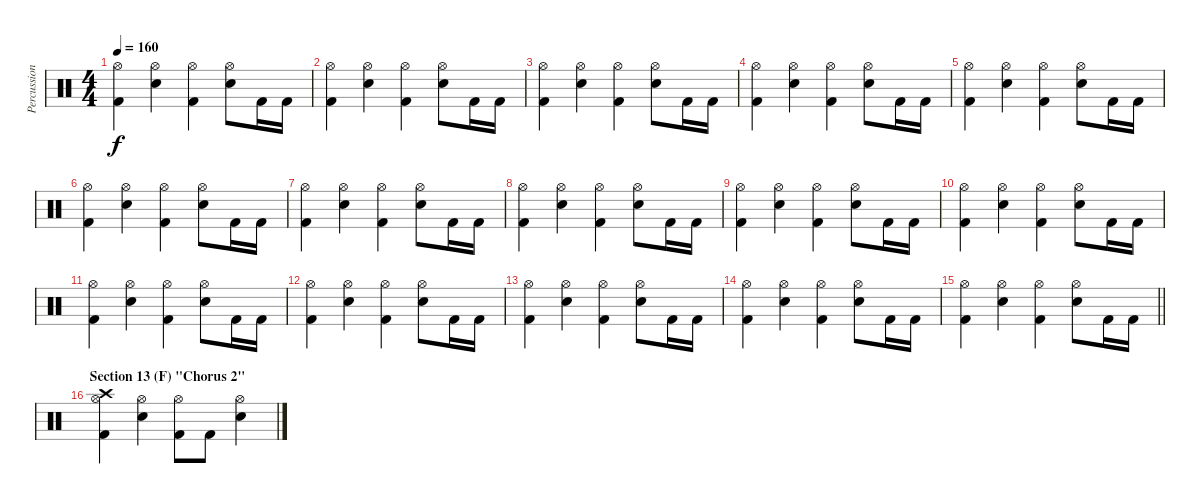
\track ("Percussion" "Percussion") {instrument percussion}
\staff {score}
\articulation defaults
\ts (4 4)
\tempo 160
\clef neutral
\ks c
("Hi-Hat (open)" "Kick (hit) 2").4{dy f} ("Hi-Hat (open)" "Snare (hit) 2").4 ("Hi-Hat (open)" "Kick (hit) 2").4 ("Hi-Hat (open)" "Snare (hit) 2").8 "Kick (hit) 2".16 "Kick (hit) 2".16 |
("Hi-Hat (open)" "Kick (hit) 2").4 ("Hi-Hat (open)" "Snare (hit) 2").4 ("Hi-Hat (open)" "Kick (hit) 2").4 ("Hi-Hat (open)" "Snare (hit) 2").8 "Kick (hit) 2".16 "Kick (hit) 2".16 |
("Hi-Hat (open)" "Kick (hit) 2").4 ("Hi-Hat (open)" "Snare (hit) 2").4 ("Hi-Hat (open)" "Kick (hit) 2").4 ("Hi-Hat (open)" "Snare (hit) 2").8 "Kick (hit) 2".16 "Kick (hit) 2".16 |
("Hi-Hat (open)" "Kick (hit) 2").4 ("Hi-Hat (open)" "Snare (hit) 2").4 ("Hi-Hat (open)" "Kick (hit) 2").4 ("Hi-Hat (open)" "Snare (hit) 2").8 "Kick (hit) 2".16 "Kick (hit) 2".16 |
("Hi-Hat (open)" "Kick (hit) 2").4 ("Hi-Hat (open)" "Snare (hit) 2").4 ("Hi-Hat (open)" "Kick (hit) 2").4 ("Hi-Hat (open)" "Snare (hit) 2").8 "Kick (hit) 2".16 "Kick (hit) 2".16 |
("Hi-Hat (open)" "Kick (hit) 2").4 ("Hi-Hat (open)" "Snare (hit) 2").4 ("Hi-Hat (open)" "Kick (hit) 2").4 ("Hi-Hat (open)" "Snare (hit) 2").8 "Kick (hit) 2".16 "Kick (hit) 2".16 |
("Hi-Hat (open)" "Kick (hit) 2").4 ("Hi-Hat (open)" "Snare (hit) 2").4 ("Hi-Hat (open)" "Kick (hit) 2").4 ("Hi-Hat (open)" "Snare (hit) 2").8 "Kick (hit) 2".16 "Kick (hit) 2".16 |
("Hi-Hat (open)" "Kick (hit) 2").4 ("Hi-Hat (open)" "Snare (hit) 2").4 ("Hi-Hat (open)" "Kick (hit) 2").4 ("Hi-Hat (open)" "Snare (hit) 2").8 "Kick (hit) 2".16 "Kick (hit) 2".16 |
("Hi-Hat (open)" "Kick (hit) 2").4 ("Hi-Hat (open)" "Snare (hit) 2").4 ("Hi-Hat (open)" "Kick (hit) 2").4 ("Hi-Hat (open)" "Snare (hit) 2").8 "Kick (hit) 2".16 "Kick (hit) 2".16 |
("Hi-Hat (open)" "Kick (hit) 2").4 ("Hi-Hat (open)" "Snare (hit) 2").4 ("Hi-Hat (open)" "Kick (hit) 2").4 ("Hi-Hat (open)" "Snare (hit) 2").8 "Kick (hit) 2".16 "Kick (hit) 2".16 |
("Hi-Hat (open)" "Kick (hit) 2").4 ("Hi-Hat (open)" "Snare (hit) 2").4 ("Hi-Hat (open)" "Kick (hit) 2").4 ("Hi-Hat (open)" "Snare (hit) 2").8 "Kick (hit) 2".16 "Kick (hit) 2".16 |
("Hi-Hat (open)" "Kick (hit) 2").4 ("Hi-Hat (open)" "Snare (hit) 2").4 ("Hi-Hat (open)" "Kick (hit) 2").4 ("Hi-Hat (open)" "Snare (hit) 2").8 "Kick (hit) 2".16 "Kick (hit) 2".16 |
("Hi-Hat (open)" "Kick (hit) 2").4 ("Hi-Hat (open)" "Snare (hit) 2").4 ("Hi-Hat (open)" "Kick (hit) 2").4 ("Hi-Hat (open)" "Snare (hit) 2").8 "Kick (hit) 2".16 "Kick (hit) 2".16 |
("Hi-Hat (open)" "Kick (hit) 2").4 ("Hi-Hat (open)" "Snare (hit) 2").4 ("Hi-Hat (open)" "Kick (hit) 2").4 ("Hi-Hat (open)" "Snare (hit) 2").8 "Kick (hit) 2".16 "Kick (hit) 2".16 |
\barLineRight lightlight
("Hi-Hat (open)" "Kick (hit) 2").4 ("Hi-Hat (open)" "Snare (hit) 2").4 ("Hi-Hat (open)" "Kick (hit) 2").4 ("Hi-Hat (open)" "Snare (hit) 2").8 "Kick (hit) 2".16 "Kick (hit) 2".16 |
\section ("" "Section 13 (F) \"Chorus 2\"")
("Crash high (hit)" "Hi-Hat (open)" "Kick (hit) 2").4 ("Hi-Hat (open)" "Snare (hit) 2").4 ("Hi-Hat (open)" "Kick (hit) 2").8 "Kick (hit) 2".8 ("Hi-Hat (open)" "Snare (hit) 2").4
